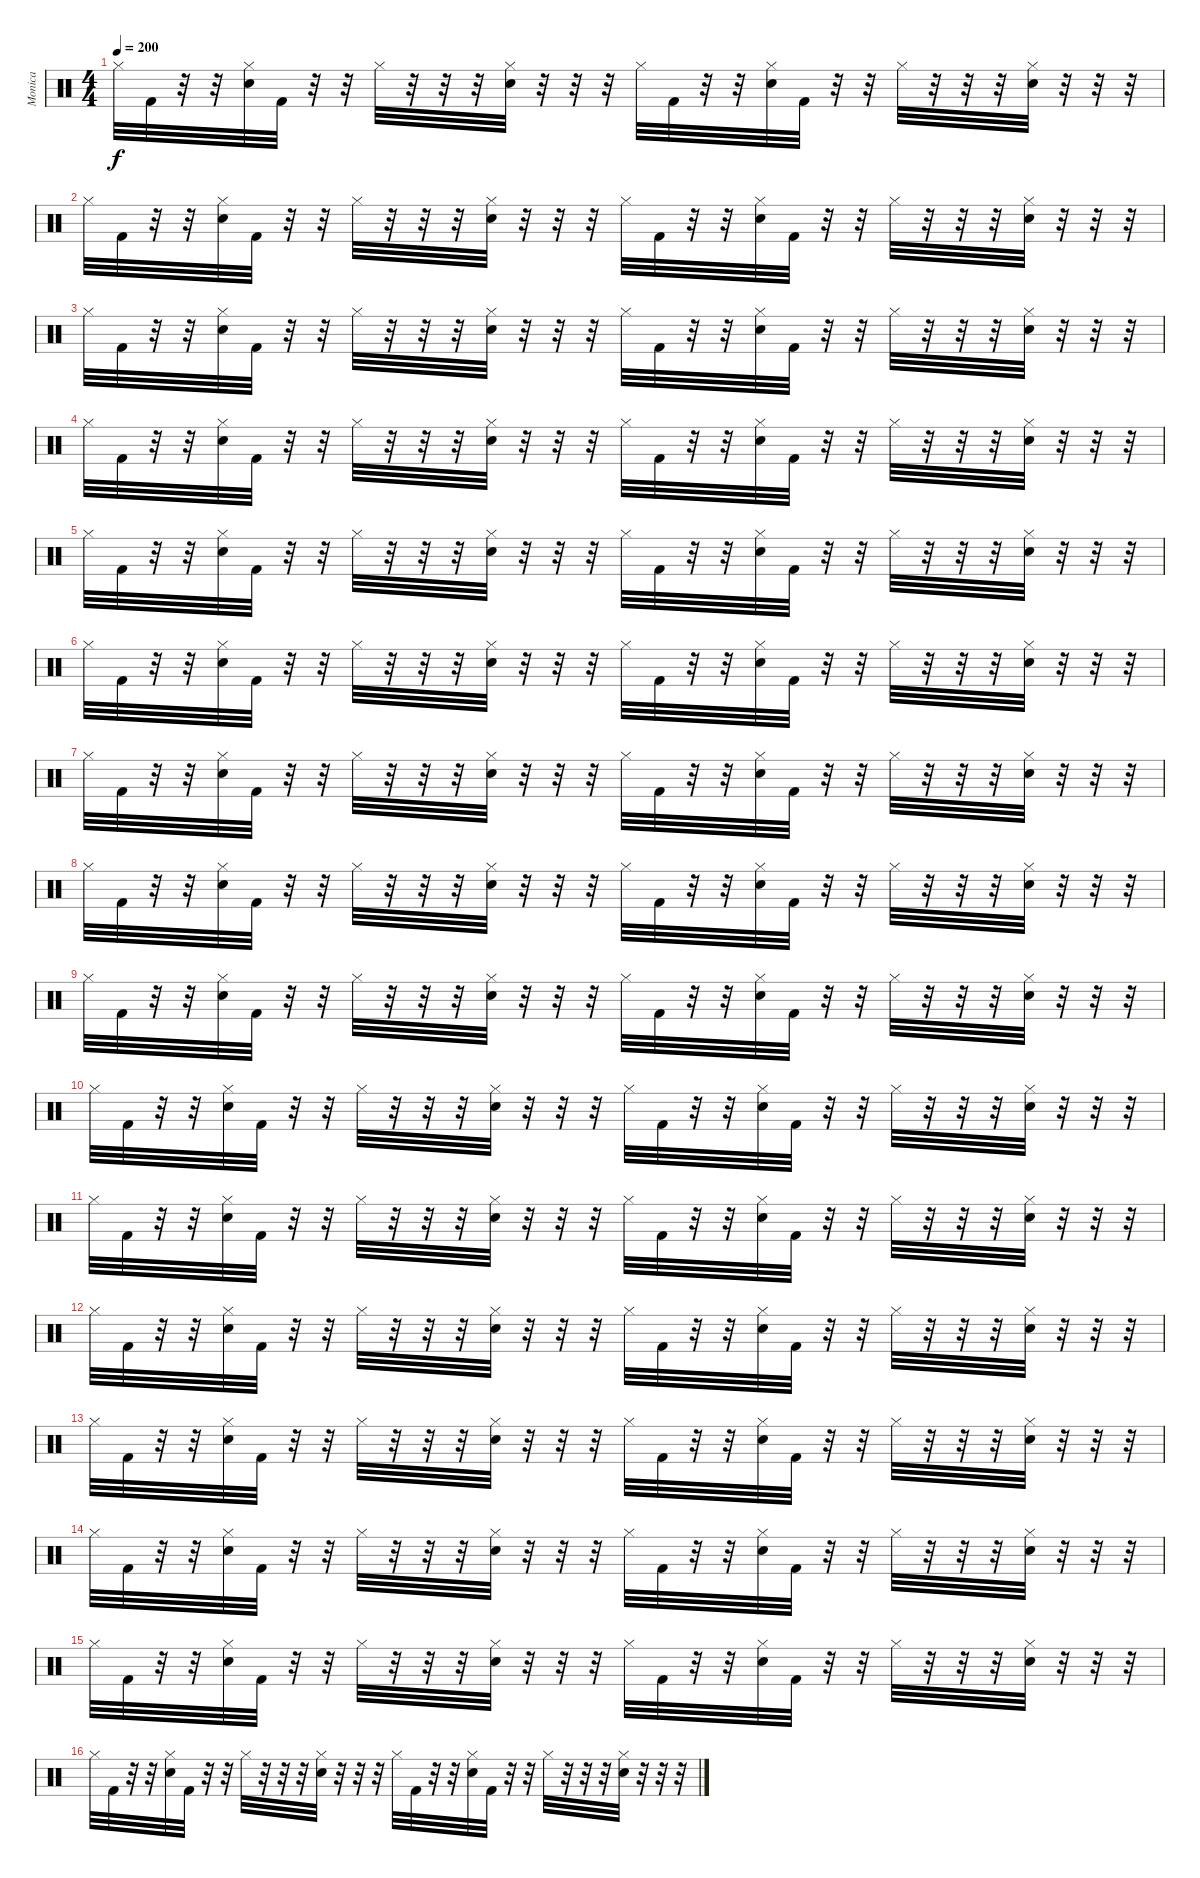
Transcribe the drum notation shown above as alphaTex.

\track ("Monica" "Monica") {instrument percussion}
\staff {score}
\articulation defaults
\ts (4 4)
\tempo 200
\clef neutral
\ks c "Hi-Hat (closed)".32{dy f} "Kick (hit) 2".32
r.32 r.32 ("Hi-Hat (closed)" "Snare (hit) 2").32 "Kick (hit) 2".32 r.32 r.32 "Hi-Hat (closed)".32 r.32 r.32 r.32 ("Hi-Hat (closed)" "Snare (hit) 2").32 r.32 r.32 r.32 "Hi-Hat (closed)".32 "Kick (hit) 2".32 r.32 r.32 ("Hi-Hat (closed)" "Snare (hit) 2").32 "Kick (hit) 2".32 r.32 r.32 "Hi-Hat (closed)".32 r.32 r.32 r.32 ("Hi-Hat (closed)" "Snare (hit) 2").32 r.32 r.32 r.32 |
"Hi-Hat (closed)".32 "Kick (hit) 2".32 r.32 r.32 ("Hi-Hat (closed)" "Snare (hit) 2").32 "Kick (hit) 2".32 r.32 r.32 "Hi-Hat (closed)".32 r.32 r.32 r.32 ("Hi-Hat (closed)" "Snare (hit) 2").32 r.32 r.32 r.32 "Hi-Hat (closed)".32 "Kick (hit) 2".32 r.32 r.32 ("Hi-Hat (closed)" "Snare (hit) 2").32 "Kick (hit) 2".32 r.32 r.32 "Hi-Hat (closed)".32 r.32 r.32 r.32 ("Hi-Hat (closed)" "Snare (hit) 2").32 r.32 r.32 r.32 |
"Hi-Hat (closed)".32 "Kick (hit) 2".32 r.32 r.32 ("Hi-Hat (closed)" "Snare (hit) 2").32 "Kick (hit) 2".32 r.32 r.32 "Hi-Hat (closed)".32 r.32 r.32 r.32 ("Hi-Hat (closed)" "Snare (hit) 2").32 r.32 r.32 r.32 "Hi-Hat (closed)".32 "Kick (hit) 2".32 r.32 r.32 ("Hi-Hat (closed)" "Snare (hit) 2").32 "Kick (hit) 2".32 r.32 r.32 "Hi-Hat (closed)".32 r.32 r.32 r.32 ("Hi-Hat (closed)" "Snare (hit) 2").32 r.32 r.32 r.32 |
"Hi-Hat (closed)".32 "Kick (hit) 2".32 r.32 r.32 ("Hi-Hat (closed)" "Snare (hit) 2").32 "Kick (hit) 2".32 r.32 r.32 "Hi-Hat (closed)".32 r.32 r.32 r.32 ("Hi-Hat (closed)" "Snare (hit) 2").32 r.32 r.32 r.32 "Hi-Hat (closed)".32 "Kick (hit) 2".32 r.32 r.32 ("Hi-Hat (closed)" "Snare (hit) 2").32 "Kick (hit) 2".32 r.32 r.32 "Hi-Hat (closed)".32 r.32 r.32 r.32 ("Hi-Hat (closed)" "Snare (hit) 2").32 r.32 r.32 r.32 |
"Hi-Hat (closed)".32 "Kick (hit) 2".32 r.32 r.32 ("Hi-Hat (closed)" "Snare (hit) 2").32 "Kick (hit) 2".32 r.32 r.32 "Hi-Hat (closed)".32 r.32 r.32 r.32 ("Hi-Hat (closed)" "Snare (hit) 2").32 r.32 r.32 r.32 "Hi-Hat (closed)".32 "Kick (hit) 2".32 r.32 r.32 ("Hi-Hat (closed)" "Snare (hit) 2").32 "Kick (hit) 2".32 r.32 r.32 "Hi-Hat (closed)".32 r.32 r.32 r.32 ("Hi-Hat (closed)" "Snare (hit) 2").32 r.32 r.32 r.32 |
"Hi-Hat (closed)".32 "Kick (hit) 2".32 r.32 r.32 ("Hi-Hat (closed)" "Snare (hit) 2").32 "Kick (hit) 2".32 r.32 r.32 "Hi-Hat (closed)".32 r.32 r.32 r.32 ("Hi-Hat (closed)" "Snare (hit) 2").32 r.32 r.32 r.32 "Hi-Hat (closed)".32 "Kick (hit) 2".32 r.32 r.32 ("Hi-Hat (closed)" "Snare (hit) 2").32 "Kick (hit) 2".32 r.32 r.32 "Hi-Hat (closed)".32 r.32 r.32 r.32 ("Hi-Hat (closed)" "Snare (hit) 2").32 r.32 r.32 r.32 |
"Hi-Hat (closed)".32 "Kick (hit) 2".32 r.32 r.32 ("Hi-Hat (closed)" "Snare (hit) 2").32 "Kick (hit) 2".32 r.32 r.32 "Hi-Hat (closed)".32 r.32 r.32 r.32 ("Hi-Hat (closed)" "Snare (hit) 2").32 r.32 r.32 r.32 "Hi-Hat (closed)".32 "Kick (hit) 2".32 r.32 r.32 ("Hi-Hat (closed)" "Snare (hit) 2").32 "Kick (hit) 2".32 r.32 r.32 "Hi-Hat (closed)".32 r.32 r.32 r.32 ("Hi-Hat (closed)" "Snare (hit) 2").32 r.32 r.32 r.32 |
"Hi-Hat (closed)".32 "Kick (hit) 2".32 r.32 r.32 ("Hi-Hat (closed)" "Snare (hit) 2").32 "Kick (hit) 2".32 r.32 r.32 "Hi-Hat (closed)".32 r.32 r.32 r.32 ("Hi-Hat (closed)" "Snare (hit) 2").32 r.32 r.32 r.32 "Hi-Hat (closed)".32 "Kick (hit) 2".32 r.32 r.32 ("Hi-Hat (closed)" "Snare (hit) 2").32 "Kick (hit) 2".32 r.32 r.32 "Hi-Hat (closed)".32 r.32 r.32 r.32 ("Hi-Hat (closed)" "Snare (hit) 2").32 r.32 r.32 r.32 |
"Hi-Hat (closed)".32 "Kick (hit) 2".32 r.32 r.32 ("Hi-Hat (closed)" "Snare (hit) 2").32 "Kick (hit) 2".32 r.32 r.32 "Hi-Hat (closed)".32 r.32 r.32 r.32 ("Hi-Hat (closed)" "Snare (hit) 2").32 r.32 r.32 r.32 "Hi-Hat (closed)".32 "Kick (hit) 2".32 r.32 r.32 ("Hi-Hat (closed)" "Snare (hit) 2").32 "Kick (hit) 2".32 r.32 r.32 "Hi-Hat (closed)".32 r.32 r.32 r.32 ("Hi-Hat (closed)" "Snare (hit) 2").32 r.32 r.32 r.32 |
"Hi-Hat (closed)".32 "Kick (hit) 2".32 r.32 r.32 ("Hi-Hat (closed)" "Snare (hit) 2").32 "Kick (hit) 2".32 r.32 r.32 "Hi-Hat (closed)".32 r.32 r.32 r.32 ("Hi-Hat (closed)" "Snare (hit) 2").32 r.32 r.32 r.32 "Hi-Hat (closed)".32 "Kick (hit) 2".32 r.32 r.32 ("Hi-Hat (closed)" "Snare (hit) 2").32 "Kick (hit) 2".32 r.32 r.32 "Hi-Hat (closed)".32 r.32 r.32 r.32 ("Hi-Hat (closed)" "Snare (hit) 2").32 r.32 r.32 r.32 |
"Hi-Hat (closed)".32 "Kick (hit) 2".32 r.32 r.32 ("Hi-Hat (closed)" "Snare (hit) 2").32 "Kick (hit) 2".32 r.32 r.32 "Hi-Hat (closed)".32 r.32 r.32 r.32 ("Hi-Hat (closed)" "Snare (hit) 2").32 r.32 r.32 r.32 "Hi-Hat (closed)".32 "Kick (hit) 2".32 r.32 r.32 ("Hi-Hat (closed)" "Snare (hit) 2").32 "Kick (hit) 2".32 r.32 r.32 "Hi-Hat (closed)".32 r.32 r.32 r.32 ("Hi-Hat (closed)" "Snare (hit) 2").32 r.32 r.32 r.32 |
"Hi-Hat (closed)".32 "Kick (hit) 2".32 r.32 r.32 ("Hi-Hat (closed)" "Snare (hit) 2").32 "Kick (hit) 2".32 r.32 r.32 "Hi-Hat (closed)".32 r.32 r.32 r.32 ("Hi-Hat (closed)" "Snare (hit) 2").32 r.32 r.32 r.32 "Hi-Hat (closed)".32 "Kick (hit) 2".32 r.32 r.32 ("Hi-Hat (closed)" "Snare (hit) 2").32 "Kick (hit) 2".32 r.32 r.32 "Hi-Hat (closed)".32 r.32 r.32 r.32 ("Hi-Hat (closed)" "Snare (hit) 2").32 r.32 r.32 r.32 |
"Hi-Hat (closed)".32 "Kick (hit) 2".32 r.32 r.32 ("Hi-Hat (closed)" "Snare (hit) 2").32 "Kick (hit) 2".32 r.32 r.32 "Hi-Hat (closed)".32 r.32 r.32 r.32 ("Hi-Hat (closed)" "Snare (hit) 2").32 r.32 r.32 r.32 "Hi-Hat (closed)".32 "Kick (hit) 2".32 r.32 r.32 ("Hi-Hat (closed)" "Snare (hit) 2").32 "Kick (hit) 2".32 r.32 r.32 "Hi-Hat (closed)".32 r.32 r.32 r.32 ("Hi-Hat (closed)" "Snare (hit) 2").32 r.32 r.32 r.32 |
"Hi-Hat (closed)".32 "Kick (hit) 2".32 r.32 r.32 ("Hi-Hat (closed)" "Snare (hit) 2").32 "Kick (hit) 2".32 r.32 r.32 "Hi-Hat (closed)".32 r.32 r.32 r.32 ("Hi-Hat (closed)" "Snare (hit) 2").32 r.32 r.32 r.32 "Hi-Hat (closed)".32 "Kick (hit) 2".32 r.32 r.32 ("Hi-Hat (closed)" "Snare (hit) 2").32 "Kick (hit) 2".32 r.32 r.32 "Hi-Hat (closed)".32 r.32 r.32 r.32 ("Hi-Hat (closed)" "Snare (hit) 2").32 r.32 r.32 r.32 |
"Hi-Hat (closed)".32 "Kick (hit) 2".32 r.32 r.32 ("Hi-Hat (closed)" "Snare (hit) 2").32 "Kick (hit) 2".32 r.32 r.32 "Hi-Hat (closed)".32 r.32 r.32 r.32 ("Hi-Hat (closed)" "Snare (hit) 2").32 r.32 r.32 r.32 "Hi-Hat (closed)".32 "Kick (hit) 2".32 r.32 r.32 ("Hi-Hat (closed)" "Snare (hit) 2").32 "Kick (hit) 2".32 r.32 r.32 "Hi-Hat (closed)".32 r.32 r.32 r.32 ("Hi-Hat (closed)" "Snare (hit) 2").32 r.32 r.32 r.32 |
"Hi-Hat (closed)".32 "Kick (hit) 2".32 r.32 r.32 ("Hi-Hat (closed)" "Snare (hit) 2").32 "Kick (hit) 2".32 r.32 r.32 "Hi-Hat (closed)".32 r.32 r.32 r.32 ("Hi-Hat (closed)" "Snare (hit) 2").32 r.32 r.32 r.32 "Hi-Hat (closed)".32 "Kick (hit) 2".32 r.32 r.32 ("Hi-Hat (closed)" "Snare (hit) 2").32 "Kick (hit) 2".32 r.32 r.32 "Hi-Hat (closed)".32 r.32 r.32 r.32 ("Hi-Hat (closed)" "Snare (hit) 2").32 r.32 r.32 r.32
